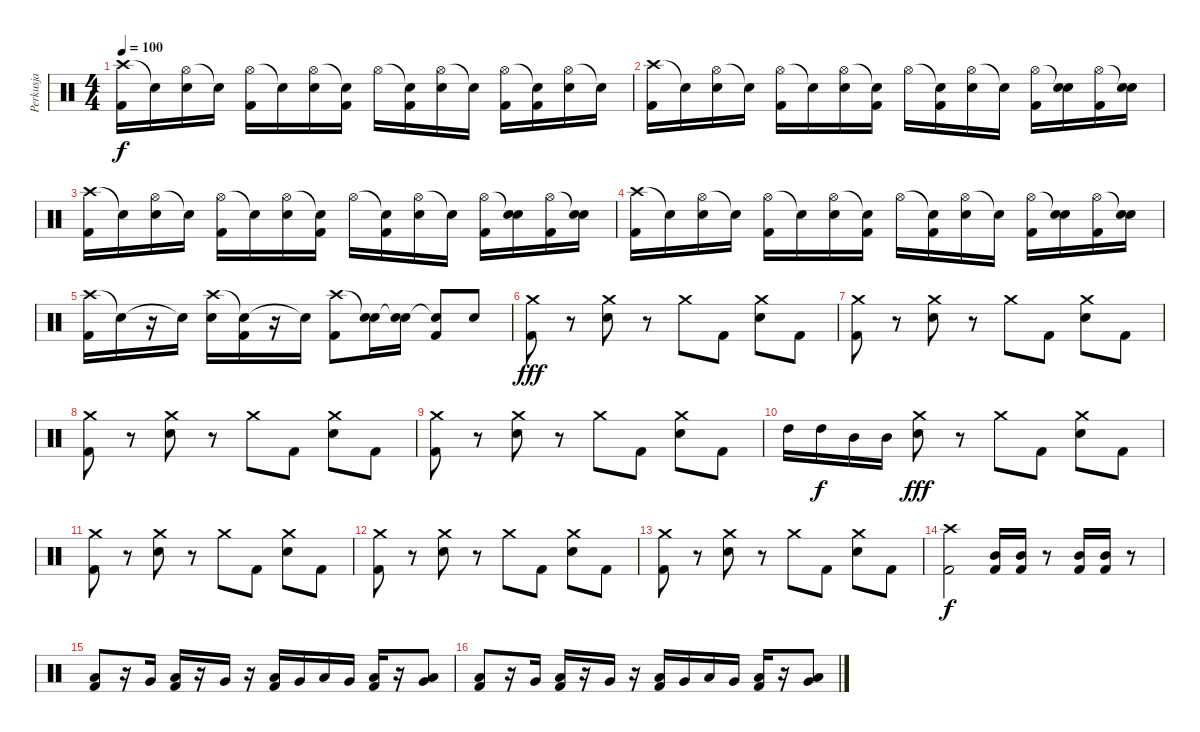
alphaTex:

\track ("Perkusja" "Perkusja") {instrument percussion}
\staff {score}
\articulation defaults
\ts (4 4)
\tempo 100
\clef neutral
\ks c
("Crash high (hit)" "Kick (hit) 2").16{dy f} "Snare (hit)"{t}.16 ("Hi-Hat (open)" "Snare (hit) 2").16 "Snare (hit)"{t}.16 ("Hi-Hat (open)" "Kick (hit) 2").16 "Snare (hit)"{t}.16 ("Hi-Hat (open)" "Snare (hit) 2").16 ("Snare (hit)"{t} "Kick (hit) 2").16 "Hi-Hat (open)".16 ("Snare (hit)"{t} "Kick (hit) 2").16 ("Hi-Hat (open)" "Snare (hit) 2").16 "Snare (hit)"{t}.16 ("Hi-Hat (open)" "Kick (hit) 2").16 ("Snare (hit)"{t} "Kick (hit) 2").16 ("Hi-Hat (open)" "Snare (hit) 2").16 "Snare (hit)"{t}.16 |
("Crash high (hit)" "Kick (hit) 2").16 "Snare (hit)"{t}.16 ("Hi-Hat (open)" "Snare (hit) 2").16 "Snare (hit)"{t}.16 ("Hi-Hat (open)" "Kick (hit) 2").16 "Snare (hit)"{t}.16 ("Hi-Hat (open)" "Snare (hit) 2").16 ("Snare (hit)"{t} "Kick (hit) 2").16 "Hi-Hat (open)".16 ("Snare (hit)"{t} "Kick (hit) 2").16 ("Hi-Hat (open)" "Snare (hit) 2").16 "Snare (hit)"{t}.16 ("Hi-Hat (open)" "Kick (hit) 2").16 ("Snare (hit)"{t} "Electric Snare (hit)").16 ("Hi-Hat (open)" "Kick (hit) 2").16 ("Snare (hit)"{t} "Electric Snare (hit)").16 |
("Crash high (hit)" "Kick (hit) 2").16 "Snare (hit)"{t}.16 ("Hi-Hat (open)" "Snare (hit) 2").16 "Snare (hit)"{t}.16 ("Hi-Hat (open)" "Kick (hit) 2").16 "Snare (hit)"{t}.16 ("Hi-Hat (open)" "Snare (hit) 2").16 ("Snare (hit)"{t} "Kick (hit) 2").16 "Hi-Hat (open)".16 ("Snare (hit)"{t} "Kick (hit) 2").16 ("Hi-Hat (open)" "Snare (hit) 2").16 "Snare (hit)"{t}.16 ("Hi-Hat (open)" "Kick (hit) 2").16 ("Snare (hit)"{t} "Electric Snare (hit)").16 ("Hi-Hat (open)" "Kick (hit) 2").16 ("Snare (hit)"{t} "Electric Snare (hit)").16 |
("Crash high (hit)" "Kick (hit) 2").16 "Snare (hit)"{t}.16 ("Hi-Hat (open)" "Snare (hit) 2").16 "Snare (hit)"{t}.16 ("Hi-Hat (open)" "Kick (hit) 2").16 "Snare (hit)"{t}.16 ("Hi-Hat (open)" "Snare (hit) 2").16 ("Snare (hit)"{t} "Kick (hit) 2").16 "Hi-Hat (open)".16 ("Snare (hit)"{t} "Kick (hit) 2").16 ("Hi-Hat (open)" "Snare (hit) 2").16 "Snare (hit)"{t}.16 ("Hi-Hat (open)" "Kick (hit) 2").16 ("Snare (hit)"{t} "Electric Snare (hit)").16 ("Hi-Hat (open)" "Kick (hit) 2").16 ("Snare (hit)"{t} "Electric Snare (hit)").16 |
("Crash high (hit)" "Kick (hit) 2").16 "Snare (hit)"{t}.16 r.16 "Snare (hit)"{t}.16 ("Crash high (hit)" "Snare (hit) 2").16 ("Snare (hit)"{t} "Kick (hit) 2").16 r.16 "Snare (hit)"{t}.16 ("Crash high (hit)" "Kick (hit) 2").8 ("Snare (hit)"{t} "Snare (hit) 2").16 ("Snare (hit)"{t} "Snare (hit) 2").16 ("Snare (hit)"{t} "Kick (hit) 2").8 "Snare (hit) 2".8 |
("Kick (hit) 2" "Crash medium (hit)").8{dy fff} r.8 ("Crash medium (hit)" "Snare (hit) 2").8 r.8 "Crash medium (hit)".8 "Kick (hit) 2".8 ("Crash medium (hit)" "Snare (hit) 2").8 "Kick (hit) 2".8 |
("Kick (hit) 2" "Crash medium (hit)").8 r.8 ("Crash medium (hit)" "Snare (hit) 2").8 r.8 "Crash medium (hit)".8 "Kick (hit) 2".8 ("Crash medium (hit)" "Snare (hit) 2").8 "Kick (hit) 2".8 |
("Kick (hit) 2" "Crash medium (hit)").8 r.8 ("Crash medium (hit)" "Snare (hit) 2").8 r.8 "Crash medium (hit)".8 "Kick (hit) 2".8 ("Crash medium (hit)" "Snare (hit) 2").8 "Kick (hit) 2".8 |
("Kick (hit) 2" "Crash medium (hit)").8 r.8 ("Crash medium (hit)" "Snare (hit) 2").8 r.8 "Crash medium (hit)".8 "Kick (hit) 2".8 ("Crash medium (hit)" "Snare (hit) 2").8 "Kick (hit) 2".8 |
"High Tom (hit)".16 "High Tom (hit)".16{dy f} "Mid Tom (hit)".16 "Mid Tom (hit)".16 ("Crash medium (hit)" "Snare (hit) 2").8{dy fff} r.8 "Crash medium (hit)".8 "Kick (hit) 2".8 ("Crash medium (hit)" "Snare (hit) 2").8 "Kick (hit) 2".8 |
("Kick (hit) 2" "Crash medium (hit)").8 r.8 ("Crash medium (hit)" "Snare (hit) 2").8 r.8 "Crash medium (hit)".8 "Kick (hit) 2".8 ("Crash medium (hit)" "Snare (hit) 2").8 "Kick (hit) 2".8 |
("Kick (hit) 2" "Crash medium (hit)").8 r.8 ("Crash medium (hit)" "Snare (hit) 2").8 r.8 "Crash medium (hit)".8 "Kick (hit) 2".8 ("Crash medium (hit)" "Snare (hit) 2").8 "Kick (hit) 2".8 |
("Kick (hit) 2" "Crash medium (hit)").8 r.8 ("Crash medium (hit)" "Snare (hit) 2").8 r.8 "Crash medium (hit)".8 "Kick (hit) 2".8 ("Crash medium (hit)" "Snare (hit) 2").8 "Kick (hit) 2".8 |
("Crash high (hit)" "Kick (hit) 2").2{dy f} ("Mid Tom (hit)" "Kick (hit) 2").16 ("Mid Tom (hit)" "Kick (hit) 2").16 r.8 ("Mid Tom (hit)" "Kick (hit) 2").16 ("Mid Tom (hit)" "Kick (hit) 2").16 r.8 |
("Low Floor Tom (hit)" "Kick (hit) 2").8 r.16 "Very Low Tom (hit)".16 ("Low Floor Tom (hit)" "Kick (hit) 2").16 r.16 "Very Low Tom (hit)".16 r.16 ("Low Floor Tom (hit)" "Kick (hit) 2").16 "Very Low Tom (hit)".16 "Low Floor Tom (hit)".16 "Very Low Tom (hit)".16 ("Low Floor Tom (hit)" "Kick (hit) 2").16 r.16 ("Very Low Tom (hit)" "Low Floor Tom (hit)").8 |
("Low Floor Tom (hit)" "Kick (hit) 2").8 r.16 "Very Low Tom (hit)".16 ("Low Floor Tom (hit)" "Kick (hit) 2").16 r.16 "Very Low Tom (hit)".16 r.16 ("Low Floor Tom (hit)" "Kick (hit) 2").16 "Very Low Tom (hit)".16 "Low Floor Tom (hit)".16 "Very Low Tom (hit)".16 ("Low Floor Tom (hit)" "Kick (hit) 2").16 r.16 ("Very Low Tom (hit)" "Low Floor Tom (hit)").8
